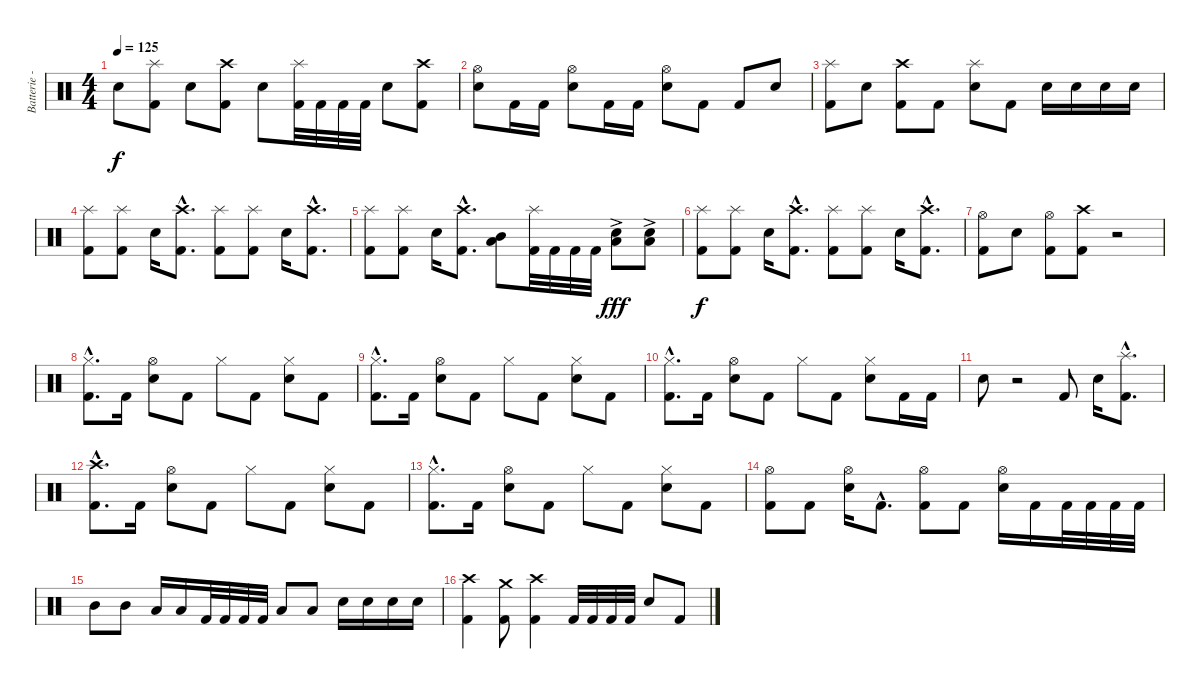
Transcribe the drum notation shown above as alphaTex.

\track ("Batterie - Anton" "Batterie -") {instrument percussion}
\staff {score}
\articulation defaults
\ts (4 4)
\tempo 125
\clef neutral
\ks c "Electric Snare (hit)".8{dy f}
("Splash (hit)" "Kick (hit) 2").8 "Electric Snare (hit)".8 ("Crash high (hit)" "Kick (hit) 2").8 "Electric Snare (hit)".8 ("Splash (hit)" "Kick (hit) 2").32 "Kick (hit) 2".32 "Kick (hit) 2".32 "Kick (hit) 2".32 "Electric Snare (hit)".8 ("Crash high (hit)" "Kick (hit) 2").8 |
("Hi-Hat (open)" "Electric Snare (hit)").8 "Kick (hit) 2".16 "Kick (hit) 2".16 ("Hi-Hat (open)" "Electric Snare (hit)").8 "Kick (hit) 2".16 "Kick (hit) 2".16 ("Hi-Hat (open)" "Electric Snare (hit)").8 "Kick (hit) 2".8 "Kick (hit) 2".8 "Electric Snare (hit)".8 |
("Splash (hit)" "Kick (hit) 2").8 "Electric Snare (hit)".8 ("Crash high (hit)" "Kick (hit) 2").8 "Kick (hit) 2".8 ("Splash (hit)" "Electric Snare (hit)").8 "Kick (hit) 2".8 "Electric Snare (hit)".16 "Electric Snare (hit)".16 "Electric Snare (hit)".16 "Electric Snare (hit)".16 |
("Splash (hit)" "Kick (hit) 2").8 ("Splash (hit)" "Kick (hit) 2").8 "Electric Snare (hit)".16 ("Crash high (hit)"{hac} "Kick (hit) 2"{hac}).8{d} ("Splash (hit)" "Kick (hit) 2").8 ("Splash (hit)" "Kick (hit) 2").8 "Electric Snare (hit)".16 ("Crash high (hit)"{hac} "Kick (hit) 2"{hac}).8{d} |
("Splash (hit)" "Kick (hit) 2").8 ("Splash (hit)" "Kick (hit) 2").8 "Electric Snare (hit)".16 ("Crash high (hit)"{hac} "Kick (hit) 2"{hac}).8{d} ("Low Tom (hit)" "Mid Tom (hit)").8 ("Splash (hit)" "Kick (hit) 2").32 "Kick (hit) 2".32 "Kick (hit) 2".32 "Kick (hit) 2".32 ("Low Floor Tom (hit)" "Electric Snare (hit)"{ac}).8{dy fff} ("Low Floor Tom (hit)" "Electric Snare (hit)"{ac}).8 |
("Splash (hit)" "Kick (hit) 2").8{dy f} ("Splash (hit)" "Kick (hit) 2").8 "Electric Snare (hit)".16 ("Crash high (hit)"{hac} "Kick (hit) 2"{hac}).8{d} ("Splash (hit)" "Kick (hit) 2").8 ("Splash (hit)" "Kick (hit) 2").8 "Electric Snare (hit)".16 ("Crash high (hit)"{hac} "Kick (hit) 2"{hac}).8{d} |
("Hi-Hat (open)" "Kick (hit) 2").8 "Electric Snare (hit)".8 ("Hi-Hat (open)" "Kick (hit) 2").8 ("Crash high (hit)" "Kick (hit) 2").8 r.2 |
("Hi-Hat (closed)"{hac} "Kick (hit) 2"{hac}).8{d} "Kick (hit) 2".16 ("Hi-Hat (open)" "Electric Snare (hit)").8 "Kick (hit) 2".8 "Hi-Hat (closed)".8 "Kick (hit) 2".8 ("Hi-Hat (closed)" "Electric Snare (hit)").8 "Kick (hit) 2".8 |
("Hi-Hat (closed)"{hac} "Kick (hit) 2"{hac}).8{d} "Kick (hit) 2".16 ("Hi-Hat (open)" "Electric Snare (hit)").8 "Kick (hit) 2".8 "Hi-Hat (closed)".8 "Kick (hit) 2".8 ("Hi-Hat (closed)" "Electric Snare (hit)").8 "Kick (hit) 2".8 |
("Hi-Hat (closed)"{hac} "Kick (hit) 2"{hac}).8{d} "Kick (hit) 2".16 ("Hi-Hat (open)" "Electric Snare (hit)").8 "Kick (hit) 2".8 "Hi-Hat (closed)".8 "Kick (hit) 2".8 ("Hi-Hat (closed)" "Electric Snare (hit)").8 "Kick (hit) 2".16 "Kick (hit) 2".16 |
"Electric Snare (hit)".8 r.2 "Kick (hit) 2".8 "Electric Snare (hit)".16 ("Splash (hit)"{hac} "Kick (hit) 2"{hac}).8{d} |
("Crash high (hit)"{hac} "Kick (hit) 2"{hac}).8{d} "Kick (hit) 2".16 ("Hi-Hat (open)" "Electric Snare (hit)").8 "Kick (hit) 2".8 "Hi-Hat (closed)".8 "Kick (hit) 2".8 ("Hi-Hat (closed)" "Electric Snare (hit)").8 "Kick (hit) 2".8 |
("Hi-Hat (closed)"{hac} "Kick (hit) 2"{hac}).8{d} "Kick (hit) 2".16 ("Hi-Hat (open)" "Electric Snare (hit)").8 "Kick (hit) 2".8 "Hi-Hat (closed)".8 "Kick (hit) 2".8 ("Hi-Hat (closed)" "Electric Snare (hit)").8 "Kick (hit) 2".8 |
("Hi-Hat (open)" "Kick (hit) 2").8 "Kick (hit) 2".8 ("Hi-Hat (open)" "Electric Snare (hit)").16 "Kick (hit) 2"{hac}.8{d} ("Hi-Hat (open)" "Kick (hit) 2").8 "Kick (hit) 2".8 ("Hi-Hat (open)" "Electric Snare (hit)").16 "Kick (hit) 2".16 "Kick (hit) 2".32 "Kick (hit) 2".32 "Kick (hit) 2".32 "Kick (hit) 2".32 |
"Mid Tom (hit)".8 "Mid Tom (hit)".8 "Low Floor Tom (hit)".16 "Low Floor Tom (hit)".16 "Kick (hit) 2".32 "Kick (hit) 2".32 "Kick (hit) 2".32 "Kick (hit) 2".32 "Low Tom (hit)".8 "Low Tom (hit)".8 "Electric Snare (hit)".16 "Electric Snare (hit)".16 "Electric Snare (hit)".16 "Electric Snare (hit)".16 |
("Crash high (hit)" "Kick (hit) 2").4 ("Crash medium (hit)" "Kick (hit) 2").8 ("Crash high (hit)" "Kick (hit) 2").4 "Kick (hit) 2".32 "Kick (hit) 2".32 "Kick (hit) 2".32 "Kick (hit) 2".32 "Electric Snare (hit)".8 "Kick (hit) 2".8
